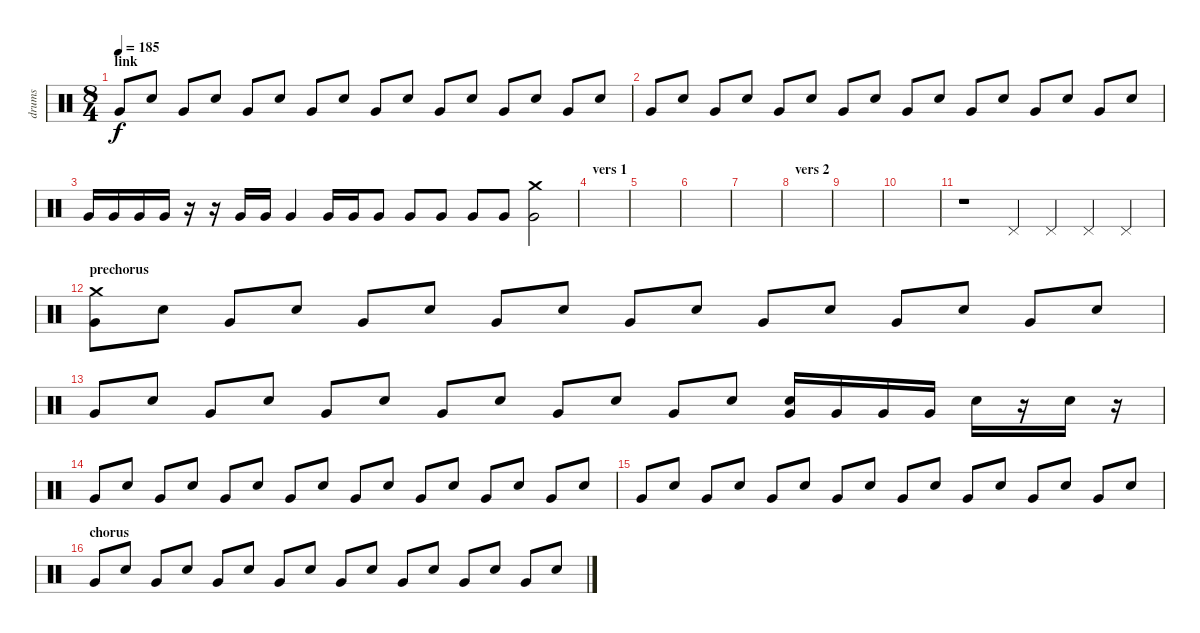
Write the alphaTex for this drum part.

\track ("drums" "drums") {instrument percussion}
\staff {score}
\articulation defaults
\ts (8 4)
\section ("" "link")
\tempo 185
\clef neutral
\ks c "Very Low Tom (hit)".8{dy f} "Electric Snare (hit)".8 "Very Low Tom (hit)".8 "Electric Snare (hit)".8 "Very Low Tom (hit)".8 "Electric Snare (hit)".8 "Very Low Tom (hit)".8 "Electric Snare (hit)".8 "Very Low Tom (hit)".8 "Electric Snare (hit)".8 "Very Low Tom (hit)".8 "Electric Snare (hit)".8 "Very Low Tom (hit)".8 "Electric Snare (hit)".8 "Very Low Tom (hit)".8 "Electric Snare (hit)".8
|
"Very Low Tom (hit)".8 "Electric Snare (hit)".8 "Very Low Tom (hit)".8 "Electric Snare (hit)".8 "Very Low Tom (hit)".8 "Electric Snare (hit)".8 "Very Low Tom (hit)".8 "Electric Snare (hit)".8 "Very Low Tom (hit)".8 "Electric Snare (hit)".8 "Very Low Tom (hit)".8 "Electric Snare (hit)".8 "Very Low Tom (hit)".8 "Electric Snare (hit)".8 "Very Low Tom (hit)".8 "Electric Snare (hit)".8 |
"Very Low Tom (hit)".16 "Very Low Tom (hit)".16 "Very Low Tom (hit)".16 "Very Low Tom (hit)".16 r.16 r.16 "Very Low Tom (hit)".16 "Very Low Tom (hit)".16 "Very Low Tom (hit)".4 "Very Low Tom (hit)".16 "Very Low Tom (hit)".16 "Very Low Tom (hit)".8 "Very Low Tom (hit)".8 "Very Low Tom (hit)".8 "Very Low Tom (hit)".8 "Very Low Tom (hit)".8 ("Crash medium (hit)" "Very Low Tom (hit)").2 |
\section ("" "vers 1")
|
|
|
|
\section ("" "vers 2")
|
|
|
r.1 "Pedal Hi-Hat (hit)".4 "Pedal Hi-Hat (hit)".4 "Pedal Hi-Hat (hit)".4 "Pedal Hi-Hat (hit)".4 |
\section ("" "prechorus")
("Crash medium (hit)" "Very Low Tom (hit)").8 "Electric Snare (hit)".8 "Very Low Tom (hit)".8 "Electric Snare (hit)".8 "Very Low Tom (hit)".8 "Electric Snare (hit)".8 "Very Low Tom (hit)".8 "Electric Snare (hit)".8 "Very Low Tom (hit)".8 "Electric Snare (hit)".8 "Very Low Tom (hit)".8 "Electric Snare (hit)".8 "Very Low Tom (hit)".8 "Electric Snare (hit)".8 "Very Low Tom (hit)".8 "Electric Snare (hit)".8 |
"Very Low Tom (hit)".8 "Electric Snare (hit)".8 "Very Low Tom (hit)".8 "Electric Snare (hit)".8 "Very Low Tom (hit)".8 "Electric Snare (hit)".8 "Very Low Tom (hit)".8 "Electric Snare (hit)".8 "Very Low Tom (hit)".8 "Electric Snare (hit)".8 "Very Low Tom (hit)".8 "Electric Snare (hit)".8 ("Very Low Tom (hit)" "Electric Snare (hit)").16 "Very Low Tom (hit)".16 "Very Low Tom (hit)".16 "Very Low Tom (hit)".16 "Electric Snare (hit)".16 r.16 "Electric Snare (hit)".16 r.16 |
"Very Low Tom (hit)".8 "Electric Snare (hit)".8 "Very Low Tom (hit)".8 "Electric Snare (hit)".8 "Very Low Tom (hit)".8 "Electric Snare (hit)".8 "Very Low Tom (hit)".8 "Electric Snare (hit)".8 "Very Low Tom (hit)".8 "Electric Snare (hit)".8 "Very Low Tom (hit)".8 "Electric Snare (hit)".8 "Very Low Tom (hit)".8 "Electric Snare (hit)".8 "Very Low Tom (hit)".8 "Electric Snare (hit)".8 |
"Very Low Tom (hit)".8 "Electric Snare (hit)".8 "Very Low Tom (hit)".8 "Electric Snare (hit)".8 "Very Low Tom (hit)".8 "Electric Snare (hit)".8 "Very Low Tom (hit)".8 "Electric Snare (hit)".8 "Very Low Tom (hit)".8 "Electric Snare (hit)".8 "Very Low Tom (hit)".8 "Electric Snare (hit)".8 "Very Low Tom (hit)".8 "Electric Snare (hit)".8 "Very Low Tom (hit)".8 "Electric Snare (hit)".8 |
\section ("" "chorus")
"Very Low Tom (hit)".8 "Electric Snare (hit)".8 "Very Low Tom (hit)".8 "Electric Snare (hit)".8 "Very Low Tom (hit)".8 "Electric Snare (hit)".8 "Very Low Tom (hit)".8 "Electric Snare (hit)".8 "Very Low Tom (hit)".8 "Electric Snare (hit)".8 "Very Low Tom (hit)".8 "Electric Snare (hit)".8 "Very Low Tom (hit)".8 "Electric Snare (hit)".8 "Very Low Tom (hit)".8 "Electric Snare (hit)".8
